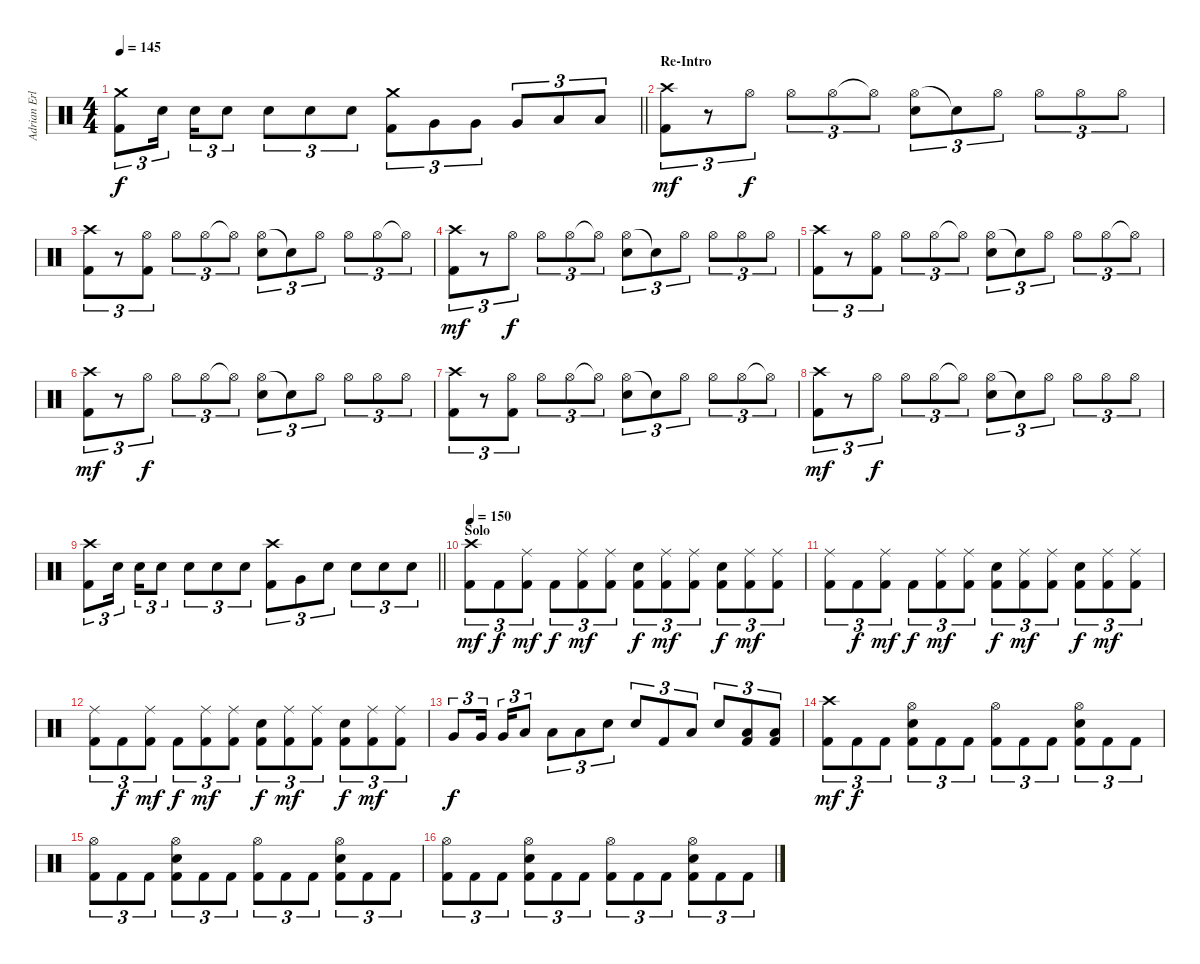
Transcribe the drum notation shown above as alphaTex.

\track ("Adrian Erlandsson" "Adrian Erl") {instrument percussion}
\staff {score}
\articulation defaults
\ts (4 4)
\tempo 145
\clef neutral
\barLineRight lightlight
\ks c
("Crash medium (hit)" "Kick (hit) 2").8{tu (3 2) dy f} "Snare (hit) 2".16{tu (3 2) beam splitsecondary} "Snare (hit) 2".16{tu (3 2)} "Snare (hit) 2".8{tu (3 2)} "Snare (hit) 2".8{tu (3 2)} "Snare (hit) 2".8{tu (3 2)} "Snare (hit) 2".8{tu (3 2)} ("Crash medium (hit)" "Kick (hit) 2").8{tu (3 2)} "Very Low Tom (hit)".8{tu (3 2)} "Very Low Tom (hit)".8{tu (3 2)} "Very Low Tom (hit)".8{tu (3 2)} "Low Floor Tom (hit)".8{tu (3 2)} "Low Floor Tom (hit)".8{tu (3 2)} |
\section ("" "Re-Intro")
("Crash high (hit)" "Kick (hit) 2").8{tu (3 2) dy mf} r.8{tu (3 2)} "Hi-Hat (open)".8{tu (3 2) dy f} "Hi-Hat (open)".8{tu (3 2)} "Hi-Hat (open)".8{tu (3 2)} "Hi-Hat (open)"{t}.8{tu (3 2)} ("Hi-Hat (open)" "Snare (hit) 2").8{tu (3 2)} "Snare (hit)"{t}.8{tu (3 2)} "Hi-Hat (open)".8{tu (3 2)} "Hi-Hat (open)".8{tu (3 2)} "Hi-Hat (open)".8{tu (3 2)} "Hi-Hat (open)".8{tu (3 2)} |
("Crash high (hit)" "Kick (hit) 2").8{tu (3 2)} r.8{tu (3 2)} ("Hi-Hat (open)" "Kick (hit) 2").8{tu (3 2)} "Hi-Hat (open)".8{tu (3 2)} "Hi-Hat (open)".8{tu (3 2)} "Hi-Hat (open)"{t}.8{tu (3 2)} ("Hi-Hat (open)" "Snare (hit) 2").8{tu (3 2)} "Snare (hit)"{t}.8{tu (3 2)} "Hi-Hat (open)".8{tu (3 2)} "Hi-Hat (open)".8{tu (3 2)} "Hi-Hat (open)".8{tu (3 2)} "Hi-Hat (open)"{t}.8{tu (3 2)} |
("Crash high (hit)" "Kick (hit) 2").8{tu (3 2) dy mf} r.8{tu (3 2)} "Hi-Hat (open)".8{tu (3 2) dy f} "Hi-Hat (open)".8{tu (3 2)} "Hi-Hat (open)".8{tu (3 2)} "Hi-Hat (open)"{t}.8{tu (3 2)} ("Hi-Hat (open)" "Snare (hit) 2").8{tu (3 2)} "Snare (hit)"{t}.8{tu (3 2)} "Hi-Hat (open)".8{tu (3 2)} "Hi-Hat (open)".8{tu (3 2)} "Hi-Hat (open)".8{tu (3 2)} "Hi-Hat (open)".8{tu (3 2)} |
("Crash high (hit)" "Kick (hit) 2").8{tu (3 2)} r.8{tu (3 2)} ("Hi-Hat (open)" "Kick (hit) 2").8{tu (3 2)} "Hi-Hat (open)".8{tu (3 2)} "Hi-Hat (open)".8{tu (3 2)} "Hi-Hat (open)"{t}.8{tu (3 2)} ("Hi-Hat (open)" "Snare (hit) 2").8{tu (3 2)} "Snare (hit)"{t}.8{tu (3 2)} "Hi-Hat (open)".8{tu (3 2)} "Hi-Hat (open)".8{tu (3 2)} "Hi-Hat (open)".8{tu (3 2)} "Hi-Hat (open)"{t}.8{tu (3 2)} |
("Crash high (hit)" "Kick (hit) 2").8{tu (3 2) dy mf} r.8{tu (3 2)} "Hi-Hat (open)".8{tu (3 2) dy f} "Hi-Hat (open)".8{tu (3 2)} "Hi-Hat (open)".8{tu (3 2)} "Hi-Hat (open)"{t}.8{tu (3 2)} ("Hi-Hat (open)" "Snare (hit) 2").8{tu (3 2)} "Snare (hit)"{t}.8{tu (3 2)} "Hi-Hat (open)".8{tu (3 2)} "Hi-Hat (open)".8{tu (3 2)} "Hi-Hat (open)".8{tu (3 2)} "Hi-Hat (open)".8{tu (3 2)} |
("Crash high (hit)" "Kick (hit) 2").8{tu (3 2)} r.8{tu (3 2)} ("Hi-Hat (open)" "Kick (hit) 2").8{tu (3 2)} "Hi-Hat (open)".8{tu (3 2)} "Hi-Hat (open)".8{tu (3 2)} "Hi-Hat (open)"{t}.8{tu (3 2)} ("Hi-Hat (open)" "Snare (hit) 2").8{tu (3 2)} "Snare (hit)"{t}.8{tu (3 2)} "Hi-Hat (open)".8{tu (3 2)} "Hi-Hat (open)".8{tu (3 2)} "Hi-Hat (open)".8{tu (3 2)} "Hi-Hat (open)"{t}.8{tu (3 2)} |
("Crash high (hit)" "Kick (hit) 2").8{tu (3 2) dy mf} r.8{tu (3 2)} "Hi-Hat (open)".8{tu (3 2) dy f} "Hi-Hat (open)".8{tu (3 2)} "Hi-Hat (open)".8{tu (3 2)} "Hi-Hat (open)"{t}.8{tu (3 2)} ("Hi-Hat (open)" "Snare (hit) 2").8{tu (3 2)} "Snare (hit)"{t}.8{tu (3 2)} "Hi-Hat (open)".8{tu (3 2)} "Hi-Hat (open)".8{tu (3 2)} "Hi-Hat (open)".8{tu (3 2)} "Hi-Hat (open)".8{tu (3 2)} |
\barLineRight lightlight
("Crash high (hit)" "Kick (hit) 2").8{tu (3 2)} "Snare (hit) 2".16{tu (3 2) beam splitsecondary} "Snare (hit) 2".16{tu (3 2)} "Snare (hit) 2".8{tu (3 2)} "Snare (hit) 2".8{tu (3 2)} "Snare (hit) 2".8{tu (3 2)} "Snare (hit) 2".8{tu (3 2)} ("Crash high (hit)" "Kick (hit) 2").8{tu (3 2)} "Very Low Tom (hit)".8{tu (3 2)} "Snare (hit) 2".8{tu (3 2)} "Snare (hit) 2".8{tu (3 2)} "Snare (hit) 2".8{tu (3 2)} "Snare (hit) 2".8{tu (3 2)} |
\section ("" "Solo")
\tempo 150
("Crash high (hit)" "Kick (hit) 2").8{tu (3 2) dy mf} "Kick (hit) 2".8{tu (3 2) dy f} ("Ride (middle)" "Kick (hit) 2").8{tu (3 2) dy mf} "Kick (hit) 2".8{tu (3 2) dy f} ("Ride (middle)" "Kick (hit) 2").8{tu (3 2) dy mf} ("Ride (middle)" "Kick (hit) 2").8{tu (3 2)} ("Snare (hit) 2" "Kick (hit) 2").8{tu (3 2) dy f} ("Ride (middle)" "Kick (hit) 2").8{tu (3 2) dy mf} ("Ride (middle)" "Kick (hit) 2").8{tu (3 2)} ("Snare (hit) 2" "Kick (hit) 2").8{tu (3 2) dy f} ("Ride (middle)" "Kick (hit) 2").8{tu (3 2) dy mf} ("Ride (middle)" "Kick (hit) 2").8{tu (3 2)} |
("Ride (middle)" "Kick (hit) 2").8{tu (3 2)} "Kick (hit) 2".8{tu (3 2) dy f} ("Ride (middle)" "Kick (hit) 2").8{tu (3 2) dy mf} "Kick (hit) 2".8{tu (3 2) dy f} ("Ride (middle)" "Kick (hit) 2").8{tu (3 2) dy mf} ("Ride (middle)" "Kick (hit) 2").8{tu (3 2)} ("Snare (hit) 2" "Kick (hit) 2").8{tu (3 2) dy f} ("Ride (middle)" "Kick (hit) 2").8{tu (3 2) dy mf} ("Ride (middle)" "Kick (hit) 2").8{tu (3 2)} ("Snare (hit) 2" "Kick (hit) 2").8{tu (3 2) dy f} ("Ride (middle)" "Kick (hit) 2").8{tu (3 2) dy mf} ("Ride (middle)" "Kick (hit) 2").8{tu (3 2)} |
("Ride (middle)" "Kick (hit) 2").8{tu (3 2)} "Kick (hit) 2".8{tu (3 2) dy f} ("Ride (middle)" "Kick (hit) 2").8{tu (3 2) dy mf} "Kick (hit) 2".8{tu (3 2) dy f} ("Ride (middle)" "Kick (hit) 2").8{tu (3 2) dy mf} ("Ride (middle)" "Kick (hit) 2").8{tu (3 2)} ("Snare (hit) 2" "Kick (hit) 2").8{tu (3 2) dy f} ("Ride (middle)" "Kick (hit) 2").8{tu (3 2) dy mf} ("Ride (middle)" "Kick (hit) 2").8{tu (3 2)} ("Snare (hit) 2" "Kick (hit) 2").8{tu (3 2) dy f} ("Ride (middle)" "Kick (hit) 2").8{tu (3 2) dy mf} ("Ride (middle)" "Kick (hit) 2").8{tu (3 2)} |
"Very Low Tom (hit)".8{tu (3 2) dy f} "Very Low Tom (hit)".16{tu (3 2) beam splitsecondary} "Very Low Tom (hit)".16{tu (3 2)} "Low Floor Tom (hit)".8{tu (3 2)} "Low Floor Tom (hit)".8{tu (3 2)} "Low Floor Tom (hit)".8{tu (3 2)} "Snare (hit) 2".8{tu (3 2)} "Snare (hit) 2".8{tu (3 2)} "Kick (hit) 2".8{tu (3 2)} "Low Floor Tom (hit)".8{tu (3 2)} "Snare (hit) 2".8{tu (3 2)} ("Low Floor Tom (hit)" "Kick (hit) 2").8{tu (3 2)} ("Low Floor Tom (hit)" "Kick (hit) 2").8{tu (3 2)} |
("Crash high (hit)" "Kick (hit) 2").8{tu (3 2) dy mf} "Kick (hit) 2".8{tu (3 2) dy f} "Kick (hit) 2".8{tu (3 2)} ("Hi-Hat (open)" "Snare (hit) 2" "Kick (hit) 2").8{tu (3 2)} "Kick (hit) 2".8{tu (3 2)} "Kick (hit) 2".8{tu (3 2)} ("Hi-Hat (open)" "Kick (hit) 2").8{tu (3 2)} "Kick (hit) 2".8{tu (3 2)} "Kick (hit) 2".8{tu (3 2)} ("Hi-Hat (open)" "Snare (hit) 2" "Kick (hit) 2").8{tu (3 2)} "Kick (hit) 2".8{tu (3 2)} "Kick (hit) 2".8{tu (3 2)} |
("Hi-Hat (open)" "Kick (hit) 2").8{tu (3 2)} "Kick (hit) 2".8{tu (3 2)} "Kick (hit) 2".8{tu (3 2)} ("Hi-Hat (open)" "Snare (hit) 2" "Kick (hit) 2").8{tu (3 2)} "Kick (hit) 2".8{tu (3 2)} "Kick (hit) 2".8{tu (3 2)} ("Hi-Hat (open)" "Kick (hit) 2").8{tu (3 2)} "Kick (hit) 2".8{tu (3 2)} "Kick (hit) 2".8{tu (3 2)} ("Hi-Hat (open)" "Snare (hit) 2" "Kick (hit) 2").8{tu (3 2)} "Kick (hit) 2".8{tu (3 2)} "Kick (hit) 2".8{tu (3 2)} |
("Hi-Hat (open)" "Kick (hit) 2").8{tu (3 2)} "Kick (hit) 2".8{tu (3 2)} "Kick (hit) 2".8{tu (3 2)} ("Hi-Hat (open)" "Snare (hit) 2" "Kick (hit) 2").8{tu (3 2)} "Kick (hit) 2".8{tu (3 2)} "Kick (hit) 2".8{tu (3 2)} ("Hi-Hat (open)" "Kick (hit) 2").8{tu (3 2)} "Kick (hit) 2".8{tu (3 2)} "Kick (hit) 2".8{tu (3 2)} ("Hi-Hat (open)" "Snare (hit) 2" "Kick (hit) 2").8{tu (3 2)} "Kick (hit) 2".8{tu (3 2)} "Kick (hit) 2".8{tu (3 2)}
